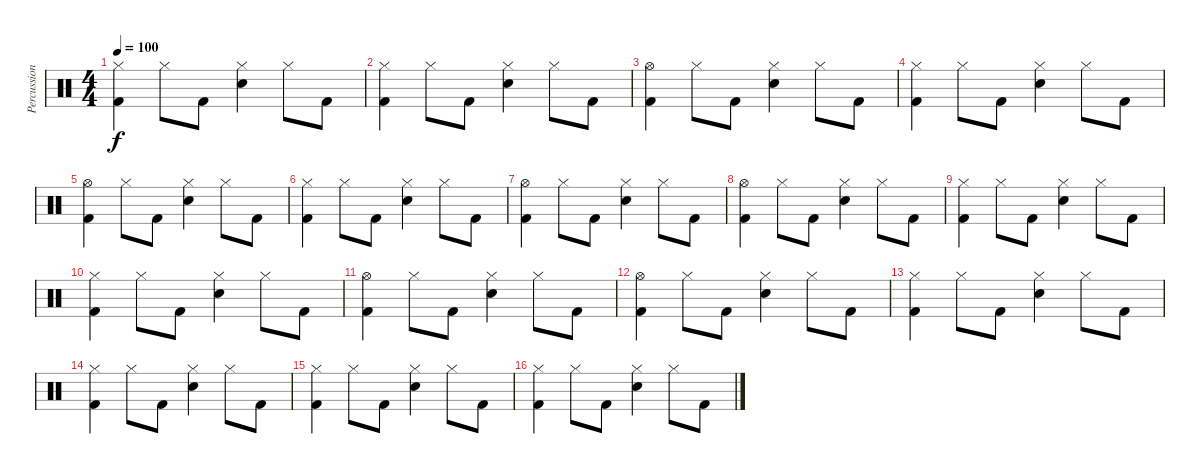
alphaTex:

\track ("Percussion" "Percussion") {instrument percussion}
\staff {score}
\articulation defaults
\ts (4 4)
\tempo 100
\clef neutral
\ks c
("Hi-Hat (closed)" "Kick (hit) 2").4{dy f} "Hi-Hat (closed)".8 "Kick (hit) 2".8 ("Hi-Hat (closed)" "Snare (hit) 2").4 "Hi-Hat (closed)".8 "Kick (hit) 2".8 |
("Hi-Hat (closed)" "Kick (hit) 2").4 "Hi-Hat (closed)".8 "Kick (hit) 2".8 ("Hi-Hat (closed)" "Snare (hit) 2").4 "Hi-Hat (closed)".8 "Kick (hit) 2".8 |
("Hi-Hat (open)" "Kick (hit) 2").4 "Hi-Hat (closed)".8 "Kick (hit) 2".8 ("Hi-Hat (closed)" "Snare (hit) 2").4 "Hi-Hat (closed)".8 "Kick (hit) 2".8 |
("Hi-Hat (closed)" "Kick (hit) 2").4 "Hi-Hat (closed)".8 "Kick (hit) 2".8 ("Hi-Hat (closed)" "Snare (hit) 2").4 "Hi-Hat (closed)".8 "Kick (hit) 2".8 |
("Hi-Hat (open)" "Kick (hit) 2").4 "Hi-Hat (closed)".8 "Kick (hit) 2".8 ("Hi-Hat (closed)" "Snare (hit) 2").4 "Hi-Hat (closed)".8 "Kick (hit) 2".8 |
("Hi-Hat (closed)" "Kick (hit) 2").4 "Hi-Hat (closed)".8 "Kick (hit) 2".8 ("Hi-Hat (closed)" "Snare (hit) 2").4 "Hi-Hat (closed)".8 "Kick (hit) 2".8 |
("Hi-Hat (open)" "Kick (hit) 2").4 "Hi-Hat (closed)".8 "Kick (hit) 2".8 ("Hi-Hat (closed)" "Snare (hit) 2").4 "Hi-Hat (closed)".8 "Kick (hit) 2".8 |
("Hi-Hat (open)" "Kick (hit) 2").4 "Hi-Hat (closed)".8 "Kick (hit) 2".8 ("Hi-Hat (closed)" "Snare (hit) 2").4 "Hi-Hat (closed)".8 "Kick (hit) 2".8 |
("Hi-Hat (closed)" "Kick (hit) 2").4 "Hi-Hat (closed)".8 "Kick (hit) 2".8 ("Hi-Hat (closed)" "Snare (hit) 2").4 "Hi-Hat (closed)".8 "Kick (hit) 2".8 |
("Hi-Hat (closed)" "Kick (hit) 2").4 "Hi-Hat (closed)".8 "Kick (hit) 2".8 ("Hi-Hat (closed)" "Snare (hit) 2").4 "Hi-Hat (closed)".8 "Kick (hit) 2".8 |
("Hi-Hat (open)" "Kick (hit) 2").4 "Hi-Hat (closed)".8 "Kick (hit) 2".8 ("Hi-Hat (closed)" "Snare (hit) 2").4 "Hi-Hat (closed)".8 "Kick (hit) 2".8 |
("Hi-Hat (open)" "Kick (hit) 2").4 "Hi-Hat (closed)".8 "Kick (hit) 2".8 ("Hi-Hat (closed)" "Snare (hit) 2").4 "Hi-Hat (closed)".8 "Kick (hit) 2".8 |
("Hi-Hat (closed)" "Kick (hit) 2").4 "Hi-Hat (closed)".8 "Kick (hit) 2".8 ("Hi-Hat (closed)" "Snare (hit) 2").4 "Hi-Hat (closed)".8 "Kick (hit) 2".8 |
("Hi-Hat (closed)" "Kick (hit) 2").4 "Hi-Hat (closed)".8 "Kick (hit) 2".8 ("Hi-Hat (closed)" "Snare (hit) 2").4 "Hi-Hat (closed)".8 "Kick (hit) 2".8 |
("Hi-Hat (closed)" "Kick (hit) 2").4 "Hi-Hat (closed)".8 "Kick (hit) 2".8 ("Hi-Hat (closed)" "Snare (hit) 2").4 "Hi-Hat (closed)".8 "Kick (hit) 2".8 |
("Hi-Hat (closed)" "Kick (hit) 2").4 "Hi-Hat (closed)".8 "Kick (hit) 2".8 ("Hi-Hat (closed)" "Snare (hit) 2").4 "Hi-Hat (closed)".8 "Kick (hit) 2".8
